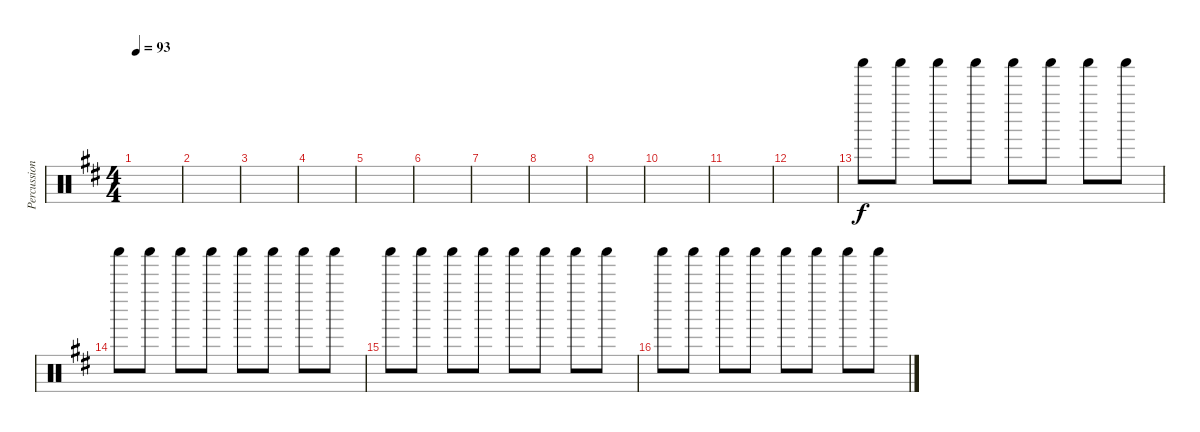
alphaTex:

\track ("Percussions" "Percussion") {instrument percussion}
\staff {score}
\articulation defaults
\ts (4 4)
\tempo 93
\clef neutral
\ks d
|
|
|
|
|
|
|
|
|
|
|
|
"Shaker (hit)".8 "Shaker (hit)".8 "Shaker (hit)".8 "Shaker (hit)".8 "Shaker (hit)".8 "Shaker (hit)".8 "Shaker (hit)".8 "Shaker (hit)".8 |
"Shaker (hit)".8 "Shaker (hit)".8 "Shaker (hit)".8 "Shaker (hit)".8 "Shaker (hit)".8 "Shaker (hit)".8 "Shaker (hit)".8 "Shaker (hit)".8 |
"Shaker (hit)".8 "Shaker (hit)".8 "Shaker (hit)".8 "Shaker (hit)".8 "Shaker (hit)".8 "Shaker (hit)".8 "Shaker (hit)".8 "Shaker (hit)".8 |
"Shaker (hit)".8 "Shaker (hit)".8 "Shaker (hit)".8 "Shaker (hit)".8 "Shaker (hit)".8 "Shaker (hit)".8 "Shaker (hit)".8 "Shaker (hit)".8
